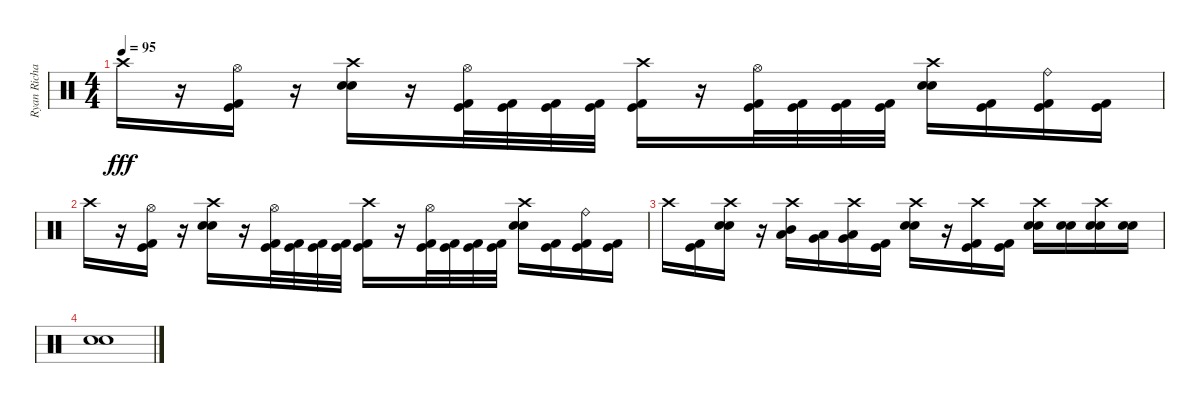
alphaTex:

\track ("Ryan Richards" "Ryan Richa") {instrument percussion}
\staff {score}
\articulation defaults
\ts (4 4)
\tempo 95
\clef neutral
\ks c "Crash high (hit)".16{dy fff}
r.16 ("Kick (hit)" "Hi-Hat (open)" "Kick (hit) 2").16 r.16 ("Snare (hit) 2" "Crash high (hit)" "Electric Snare (hit)").16 r.16 ("Kick (hit)" "Hi-Hat (open)" "Kick (hit) 2").32 ("Kick (hit)" "Kick (hit) 2").32 ("Kick (hit)" "Kick (hit) 2").32 ("Kick (hit)" "Kick (hit) 2").32 ("Kick (hit)" "Crash high (hit)" "Kick (hit) 2").16 r.16 ("Kick (hit)" "Hi-Hat (open)" "Kick (hit) 2").32 ("Kick (hit)" "Kick (hit) 2").32 ("Kick (hit)" "Kick (hit) 2").32 ("Kick (hit)" "Kick (hit) 2").32 ("Snare (hit) 2" "Crash high (hit)" "Electric Snare (hit)").16 ("Kick (hit)" "Kick (hit) 2").16 ("Kick (hit)" "Ride (bell)" "Kick (hit) 2").16 ("Kick (hit)" "Kick (hit) 2").16 |
"Crash high (hit)".16 r.16 ("Kick (hit)" "Hi-Hat (open)" "Kick (hit) 2").16 r.16 ("Snare (hit) 2" "Crash high (hit)" "Electric Snare (hit)").16 r.16 ("Kick (hit)" "Hi-Hat (open)" "Kick (hit) 2").32 ("Kick (hit)" "Kick (hit) 2").32 ("Kick (hit)" "Kick (hit) 2").32 ("Kick (hit)" "Kick (hit) 2").32 ("Kick (hit)" "Crash high (hit)" "Kick (hit) 2").16 r.16 ("Kick (hit)" "Hi-Hat (open)" "Kick (hit) 2").32 ("Kick (hit)" "Kick (hit) 2").32 ("Kick (hit)" "Kick (hit) 2").32 ("Kick (hit)" "Kick (hit) 2").32 ("Snare (hit) 2" "Crash high (hit)" "Electric Snare (hit)").16 ("Kick (hit)" "Kick (hit) 2").16 ("Kick (hit)" "Ride (bell)" "Kick (hit) 2").16 ("Kick (hit)" "Kick (hit) 2").16 |
"Crash high (hit)".16 ("Kick (hit)" "Kick (hit) 2").16 ("Snare (hit) 2" "Crash high (hit)" "Electric Snare (hit)").16 r.16 ("Mid Tom (hit)" "Crash high (hit)" "Low Tom (hit)").16 ("Low Tom (hit)" "Very Low Tom (hit)").16 ("Very Low Tom (hit)" "Crash high (hit)" "Low Floor Tom (hit)").16 ("Kick (hit)" "Kick (hit) 2").16 ("Snare (hit) 2" "Crash high (hit)" "Electric Snare (hit)").16 r.16 ("Kick (hit)" "Crash high (hit)" "Kick (hit) 2").16 ("Kick (hit)" "Kick (hit) 2").16 ("Snare (hit) 2" "Crash high (hit)" "Electric Snare (hit)").16 ("Snare (hit) 2" "Electric Snare (hit)").16 ("Snare (hit) 2" "Crash high (hit)" "Electric Snare (hit)").16 ("Snare (hit) 2" "Electric Snare (hit)").16 |
("Snare (hit) 2" "Electric Snare (hit)").1
